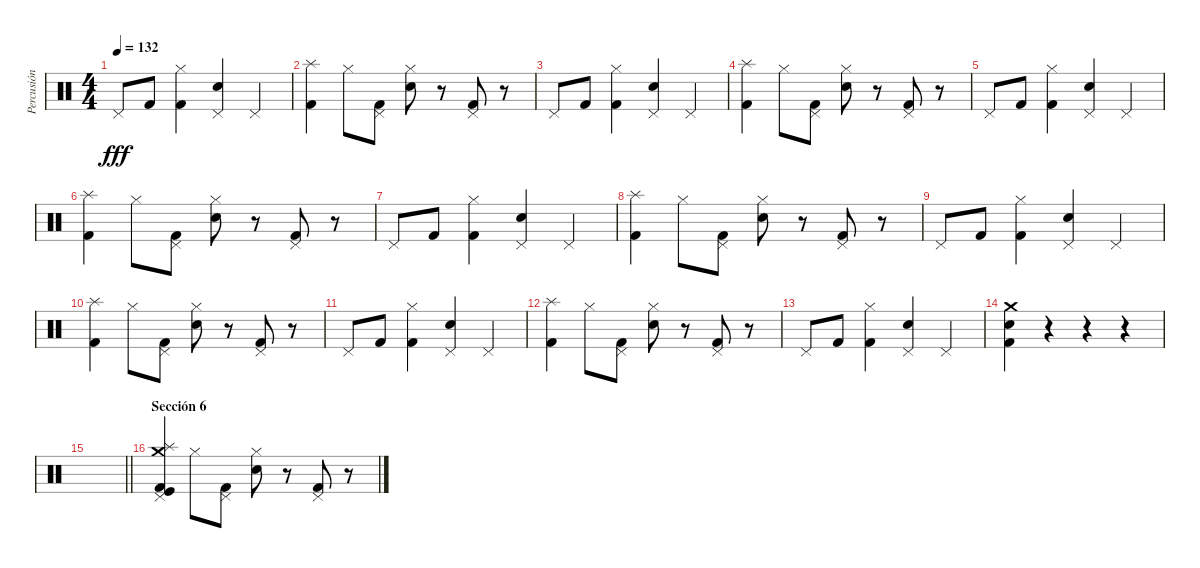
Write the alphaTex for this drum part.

\track ("Percusión" "Percusión") {instrument percussion}
\staff {score}
\articulation defaults
\ts (4 4)
\tempo 132
\clef neutral
\ks c "Pedal Hi-Hat (hit)".8{dy fff} "Kick (hit) 2".8
("Hi-Hat (closed)" "Kick (hit) 2").4 ("Pedal Hi-Hat (hit)" "Snare (hit) 2").4 "Pedal Hi-Hat (hit)".4 |
("Splash (hit)" "Kick (hit) 2").4 "Hi-Hat (closed)".8 ("Pedal Hi-Hat (hit)" "Kick (hit) 2").8 ("Hi-Hat (closed)" "Snare (hit) 2").8 r.8 ("Pedal Hi-Hat (hit)" "Kick (hit) 2").8 r.8 |
"Pedal Hi-Hat (hit)".8 "Kick (hit) 2".8 ("Hi-Hat (closed)" "Kick (hit) 2").4 ("Pedal Hi-Hat (hit)" "Snare (hit) 2").4 "Pedal Hi-Hat (hit)".4 |
("Splash (hit)" "Kick (hit) 2").4 "Hi-Hat (closed)".8 ("Pedal Hi-Hat (hit)" "Kick (hit) 2").8 ("Hi-Hat (closed)" "Snare (hit) 2").8 r.8 ("Pedal Hi-Hat (hit)" "Kick (hit) 2").8 r.8 |
"Pedal Hi-Hat (hit)".8 "Kick (hit) 2".8 ("Hi-Hat (closed)" "Kick (hit) 2").4 ("Pedal Hi-Hat (hit)" "Snare (hit) 2").4 "Pedal Hi-Hat (hit)".4 |
("Splash (hit)" "Kick (hit) 2").4 "Hi-Hat (closed)".8 ("Pedal Hi-Hat (hit)" "Kick (hit) 2").8 ("Hi-Hat (closed)" "Snare (hit) 2").8 r.8 ("Pedal Hi-Hat (hit)" "Kick (hit) 2").8 r.8 |
"Pedal Hi-Hat (hit)".8 "Kick (hit) 2".8 ("Hi-Hat (closed)" "Kick (hit) 2").4 ("Pedal Hi-Hat (hit)" "Snare (hit) 2").4 "Pedal Hi-Hat (hit)".4 |
("Splash (hit)" "Kick (hit) 2").4 "Hi-Hat (closed)".8 ("Pedal Hi-Hat (hit)" "Kick (hit) 2").8 ("Hi-Hat (closed)" "Snare (hit) 2").8 r.8 ("Pedal Hi-Hat (hit)" "Kick (hit) 2").8 r.8 |
"Pedal Hi-Hat (hit)".8 "Kick (hit) 2".8 ("Hi-Hat (closed)" "Kick (hit) 2").4 ("Pedal Hi-Hat (hit)" "Snare (hit) 2").4 "Pedal Hi-Hat (hit)".4 |
("Splash (hit)" "Kick (hit) 2").4 "Hi-Hat (closed)".8 ("Pedal Hi-Hat (hit)" "Kick (hit) 2").8 ("Hi-Hat (closed)" "Snare (hit) 2").8 r.8 ("Pedal Hi-Hat (hit)" "Kick (hit) 2").8 r.8 |
"Pedal Hi-Hat (hit)".8 "Kick (hit) 2".8 ("Hi-Hat (closed)" "Kick (hit) 2").4 ("Pedal Hi-Hat (hit)" "Snare (hit) 2").4 "Pedal Hi-Hat (hit)".4 |
("Splash (hit)" "Kick (hit) 2").4 "Hi-Hat (closed)".8 ("Pedal Hi-Hat (hit)" "Kick (hit) 2").8 ("Hi-Hat (closed)" "Snare (hit) 2").8 r.8 ("Pedal Hi-Hat (hit)" "Kick (hit) 2").8 r.8 |
"Pedal Hi-Hat (hit)".8 "Kick (hit) 2".8 ("Hi-Hat (closed)" "Kick (hit) 2").4 ("Pedal Hi-Hat (hit)" "Snare (hit) 2").4 "Pedal Hi-Hat (hit)".4 |
("Crash medium (hit)" "Snare (hit) 2" "Kick (hit) 2").4 r.4 r.4 r.4 |
\barLineRight lightlight
|
\section ("" "Sección 6")
("Splash (hit)" "Pedal Hi-Hat (hit)" "Crash medium (hit)" "Kick (hit) 2" "Kick (hit)").4 "Hi-Hat (closed)".8 ("Pedal Hi-Hat (hit)" "Kick (hit) 2").8 ("Hi-Hat (closed)" "Snare (hit) 2").8 r.8 ("Pedal Hi-Hat (hit)" "Kick (hit) 2").8 r.8
